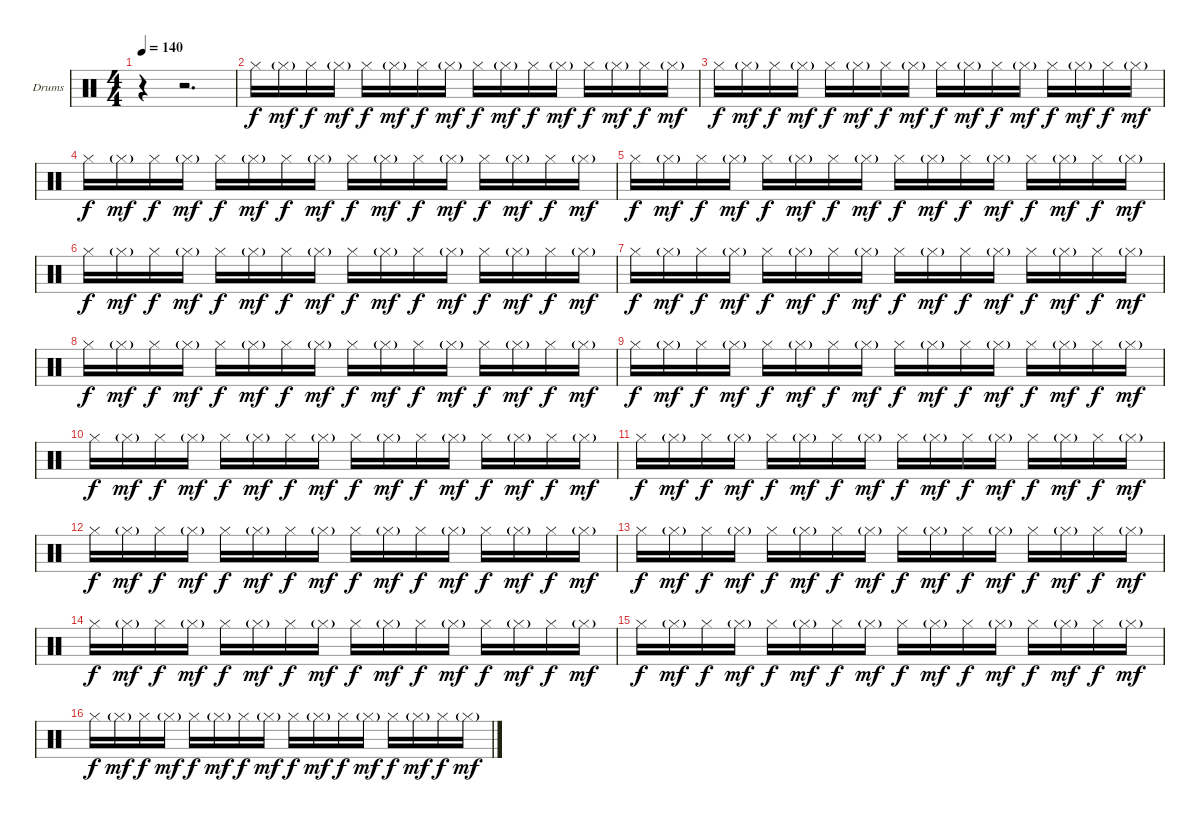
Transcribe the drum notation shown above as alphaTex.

\bracketExtendMode groupsimilarinstruments
\firstSystemTrackNameOrientation horizontal
\otherSystemsTrackNameOrientation horizontal
\track ("Drumkit" "Drums") {instrument percussion}
\staff {score}
\articulation defaults
\ts (4 4)
\tempo 140
\clef neutral
\ks c
r.4{dy f} r.2{d} |
"Hi-Hat (closed)".16 "Hi-Hat (closed)"{g}.16{dy mf} "Hi-Hat (closed)".16{dy f} "Hi-Hat (closed)"{g}.16{dy mf} "Hi-Hat (closed)".16{dy f} "Hi-Hat (closed)"{g}.16{dy mf} "Hi-Hat (closed)".16{dy f} "Hi-Hat (closed)"{g}.16{dy mf} "Hi-Hat (closed)".16{dy f} "Hi-Hat (closed)"{g}.16{dy mf} "Hi-Hat (closed)".16{dy f} "Hi-Hat (closed)"{g}.16{dy mf} "Hi-Hat (closed)".16{dy f} "Hi-Hat (closed)"{g}.16{dy mf} "Hi-Hat (closed)".16{dy f} "Hi-Hat (closed)"{g}.16{dy mf} |
"Hi-Hat (closed)".16{dy f} "Hi-Hat (closed)"{g}.16{dy mf} "Hi-Hat (closed)".16{dy f} "Hi-Hat (closed)"{g}.16{dy mf} "Hi-Hat (closed)".16{dy f} "Hi-Hat (closed)"{g}.16{dy mf} "Hi-Hat (closed)".16{dy f} "Hi-Hat (closed)"{g}.16{dy mf} "Hi-Hat (closed)".16{dy f} "Hi-Hat (closed)"{g}.16{dy mf} "Hi-Hat (closed)".16{dy f} "Hi-Hat (closed)"{g}.16{dy mf} "Hi-Hat (closed)".16{dy f} "Hi-Hat (closed)"{g}.16{dy mf} "Hi-Hat (closed)".16{dy f} "Hi-Hat (closed)"{g}.16{dy mf} |
"Hi-Hat (closed)".16{dy f} "Hi-Hat (closed)"{g}.16{dy mf} "Hi-Hat (closed)".16{dy f} "Hi-Hat (closed)"{g}.16{dy mf} "Hi-Hat (closed)".16{dy f} "Hi-Hat (closed)"{g}.16{dy mf} "Hi-Hat (closed)".16{dy f} "Hi-Hat (closed)"{g}.16{dy mf} "Hi-Hat (closed)".16{dy f} "Hi-Hat (closed)"{g}.16{dy mf} "Hi-Hat (closed)".16{dy f} "Hi-Hat (closed)"{g}.16{dy mf} "Hi-Hat (closed)".16{dy f} "Hi-Hat (closed)"{g}.16{dy mf} "Hi-Hat (closed)".16{dy f} "Hi-Hat (closed)"{g}.16{dy mf} |
"Hi-Hat (closed)".16{dy f} "Hi-Hat (closed)"{g}.16{dy mf} "Hi-Hat (closed)".16{dy f} "Hi-Hat (closed)"{g}.16{dy mf} "Hi-Hat (closed)".16{dy f} "Hi-Hat (closed)"{g}.16{dy mf} "Hi-Hat (closed)".16{dy f} "Hi-Hat (closed)"{g}.16{dy mf} "Hi-Hat (closed)".16{dy f} "Hi-Hat (closed)"{g}.16{dy mf} "Hi-Hat (closed)".16{dy f} "Hi-Hat (closed)"{g}.16{dy mf} "Hi-Hat (closed)".16{dy f} "Hi-Hat (closed)"{g}.16{dy mf} "Hi-Hat (closed)".16{dy f} "Hi-Hat (closed)"{g}.16{dy mf} |
"Hi-Hat (closed)".16{dy f} "Hi-Hat (closed)"{g}.16{dy mf} "Hi-Hat (closed)".16{dy f} "Hi-Hat (closed)"{g}.16{dy mf} "Hi-Hat (closed)".16{dy f} "Hi-Hat (closed)"{g}.16{dy mf} "Hi-Hat (closed)".16{dy f} "Hi-Hat (closed)"{g}.16{dy mf} "Hi-Hat (closed)".16{dy f} "Hi-Hat (closed)"{g}.16{dy mf} "Hi-Hat (closed)".16{dy f} "Hi-Hat (closed)"{g}.16{dy mf} "Hi-Hat (closed)".16{dy f} "Hi-Hat (closed)"{g}.16{dy mf} "Hi-Hat (closed)".16{dy f} "Hi-Hat (closed)"{g}.16{dy mf} |
"Hi-Hat (closed)".16{dy f} "Hi-Hat (closed)"{g}.16{dy mf} "Hi-Hat (closed)".16{dy f} "Hi-Hat (closed)"{g}.16{dy mf} "Hi-Hat (closed)".16{dy f} "Hi-Hat (closed)"{g}.16{dy mf} "Hi-Hat (closed)".16{dy f} "Hi-Hat (closed)"{g}.16{dy mf} "Hi-Hat (closed)".16{dy f} "Hi-Hat (closed)"{g}.16{dy mf} "Hi-Hat (closed)".16{dy f} "Hi-Hat (closed)"{g}.16{dy mf} "Hi-Hat (closed)".16{dy f} "Hi-Hat (closed)"{g}.16{dy mf} "Hi-Hat (closed)".16{dy f} "Hi-Hat (closed)"{g}.16{dy mf} |
"Hi-Hat (closed)".16{dy f} "Hi-Hat (closed)"{g}.16{dy mf} "Hi-Hat (closed)".16{dy f} "Hi-Hat (closed)"{g}.16{dy mf} "Hi-Hat (closed)".16{dy f} "Hi-Hat (closed)"{g}.16{dy mf} "Hi-Hat (closed)".16{dy f} "Hi-Hat (closed)"{g}.16{dy mf} "Hi-Hat (closed)".16{dy f} "Hi-Hat (closed)"{g}.16{dy mf} "Hi-Hat (closed)".16{dy f} "Hi-Hat (closed)"{g}.16{dy mf} "Hi-Hat (closed)".16{dy f} "Hi-Hat (closed)"{g}.16{dy mf} "Hi-Hat (closed)".16{dy f} "Hi-Hat (closed)"{g}.16{dy mf} |
"Hi-Hat (closed)".16{dy f} "Hi-Hat (closed)"{g}.16{dy mf} "Hi-Hat (closed)".16{dy f} "Hi-Hat (closed)"{g}.16{dy mf} "Hi-Hat (closed)".16{dy f} "Hi-Hat (closed)"{g}.16{dy mf} "Hi-Hat (closed)".16{dy f} "Hi-Hat (closed)"{g}.16{dy mf} "Hi-Hat (closed)".16{dy f} "Hi-Hat (closed)"{g}.16{dy mf} "Hi-Hat (closed)".16{dy f} "Hi-Hat (closed)"{g}.16{dy mf} "Hi-Hat (closed)".16{dy f} "Hi-Hat (closed)"{g}.16{dy mf} "Hi-Hat (closed)".16{dy f} "Hi-Hat (closed)"{g}.16{dy mf} |
"Hi-Hat (closed)".16{dy f} "Hi-Hat (closed)"{g}.16{dy mf} "Hi-Hat (closed)".16{dy f} "Hi-Hat (closed)"{g}.16{dy mf} "Hi-Hat (closed)".16{dy f} "Hi-Hat (closed)"{g}.16{dy mf} "Hi-Hat (closed)".16{dy f} "Hi-Hat (closed)"{g}.16{dy mf} "Hi-Hat (closed)".16{dy f} "Hi-Hat (closed)"{g}.16{dy mf} "Hi-Hat (closed)".16{dy f} "Hi-Hat (closed)"{g}.16{dy mf} "Hi-Hat (closed)".16{dy f} "Hi-Hat (closed)"{g}.16{dy mf} "Hi-Hat (closed)".16{dy f} "Hi-Hat (closed)"{g}.16{dy mf} |
"Hi-Hat (closed)".16{dy f} "Hi-Hat (closed)"{g}.16{dy mf} "Hi-Hat (closed)".16{dy f} "Hi-Hat (closed)"{g}.16{dy mf} "Hi-Hat (closed)".16{dy f} "Hi-Hat (closed)"{g}.16{dy mf} "Hi-Hat (closed)".16{dy f} "Hi-Hat (closed)"{g}.16{dy mf} "Hi-Hat (closed)".16{dy f} "Hi-Hat (closed)"{g}.16{dy mf} "Hi-Hat (closed)".16{dy f} "Hi-Hat (closed)"{g}.16{dy mf} "Hi-Hat (closed)".16{dy f} "Hi-Hat (closed)"{g}.16{dy mf} "Hi-Hat (closed)".16{dy f} "Hi-Hat (closed)"{g}.16{dy mf} |
"Hi-Hat (closed)".16{dy f} "Hi-Hat (closed)"{g}.16{dy mf} "Hi-Hat (closed)".16{dy f} "Hi-Hat (closed)"{g}.16{dy mf} "Hi-Hat (closed)".16{dy f} "Hi-Hat (closed)"{g}.16{dy mf} "Hi-Hat (closed)".16{dy f} "Hi-Hat (closed)"{g}.16{dy mf} "Hi-Hat (closed)".16{dy f} "Hi-Hat (closed)"{g}.16{dy mf} "Hi-Hat (closed)".16{dy f} "Hi-Hat (closed)"{g}.16{dy mf} "Hi-Hat (closed)".16{dy f} "Hi-Hat (closed)"{g}.16{dy mf} "Hi-Hat (closed)".16{dy f} "Hi-Hat (closed)"{g}.16{dy mf} |
"Hi-Hat (closed)".16{dy f} "Hi-Hat (closed)"{g}.16{dy mf} "Hi-Hat (closed)".16{dy f} "Hi-Hat (closed)"{g}.16{dy mf} "Hi-Hat (closed)".16{dy f} "Hi-Hat (closed)"{g}.16{dy mf} "Hi-Hat (closed)".16{dy f} "Hi-Hat (closed)"{g}.16{dy mf} "Hi-Hat (closed)".16{dy f} "Hi-Hat (closed)"{g}.16{dy mf} "Hi-Hat (closed)".16{dy f} "Hi-Hat (closed)"{g}.16{dy mf} "Hi-Hat (closed)".16{dy f} "Hi-Hat (closed)"{g}.16{dy mf} "Hi-Hat (closed)".16{dy f} "Hi-Hat (closed)"{g}.16{dy mf} |
"Hi-Hat (closed)".16{dy f} "Hi-Hat (closed)"{g}.16{dy mf} "Hi-Hat (closed)".16{dy f} "Hi-Hat (closed)"{g}.16{dy mf} "Hi-Hat (closed)".16{dy f} "Hi-Hat (closed)"{g}.16{dy mf} "Hi-Hat (closed)".16{dy f} "Hi-Hat (closed)"{g}.16{dy mf} "Hi-Hat (closed)".16{dy f} "Hi-Hat (closed)"{g}.16{dy mf} "Hi-Hat (closed)".16{dy f} "Hi-Hat (closed)"{g}.16{dy mf} "Hi-Hat (closed)".16{dy f} "Hi-Hat (closed)"{g}.16{dy mf} "Hi-Hat (closed)".16{dy f} "Hi-Hat (closed)"{g}.16{dy mf} |
"Hi-Hat (closed)".16{dy f} "Hi-Hat (closed)"{g}.16{dy mf} "Hi-Hat (closed)".16{dy f} "Hi-Hat (closed)"{g}.16{dy mf} "Hi-Hat (closed)".16{dy f} "Hi-Hat (closed)"{g}.16{dy mf} "Hi-Hat (closed)".16{dy f} "Hi-Hat (closed)"{g}.16{dy mf} "Hi-Hat (closed)".16{dy f} "Hi-Hat (closed)"{g}.16{dy mf} "Hi-Hat (closed)".16{dy f} "Hi-Hat (closed)"{g}.16{dy mf} "Hi-Hat (closed)".16{dy f} "Hi-Hat (closed)"{g}.16{dy mf} "Hi-Hat (closed)".16{dy f} "Hi-Hat (closed)"{g}.16{dy mf} |
"Hi-Hat (closed)".16{dy f} "Hi-Hat (closed)"{g}.16{dy mf} "Hi-Hat (closed)".16{dy f} "Hi-Hat (closed)"{g}.16{dy mf} "Hi-Hat (closed)".16{dy f} "Hi-Hat (closed)"{g}.16{dy mf} "Hi-Hat (closed)".16{dy f} "Hi-Hat (closed)"{g}.16{dy mf} "Hi-Hat (closed)".16{dy f} "Hi-Hat (closed)"{g}.16{dy mf} "Hi-Hat (closed)".16{dy f} "Hi-Hat (closed)"{g}.16{dy mf} "Hi-Hat (closed)".16{dy f} "Hi-Hat (closed)"{g}.16{dy mf} "Hi-Hat (closed)".16{dy f} "Hi-Hat (closed)"{g}.16{dy mf}
